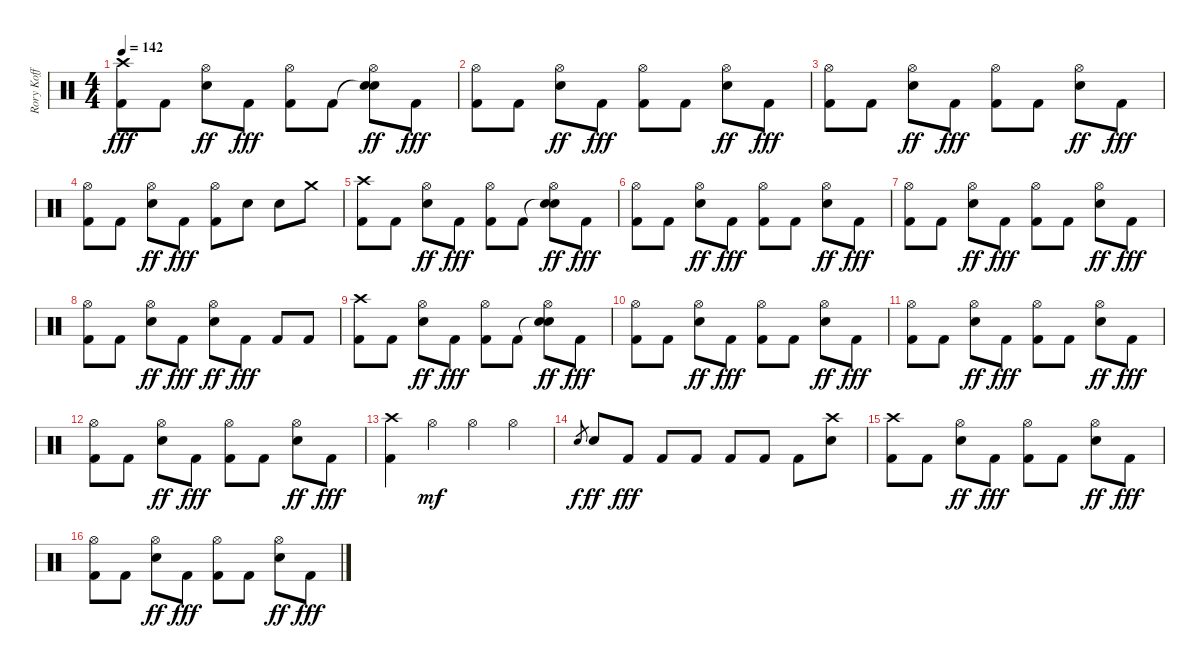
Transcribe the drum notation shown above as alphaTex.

\track ("Rory Koff" "Rory Koff") {instrument percussion}
\staff {score}
\articulation defaults
\ts (4 4)
\tempo 142
\clef neutral
\ks c
("Crash high (hit)" "Kick (hit) 2").8{dy fff} "Kick (hit) 2".8 ("Hi-Hat (open)" "Electric Snare (hit)").8{dy ff} "Kick (hit) 2".8{dy fff} ("Hi-Hat (open)" "Kick (hit) 2").8 "Kick (hit) 2".8 ("Snare (hit)"{t} "Hi-Hat (open)" "Electric Snare (hit)").8{dy ff} "Kick (hit) 2".8{dy fff} |
("Hi-Hat (open)" "Kick (hit) 2").8 "Kick (hit) 2".8 ("Hi-Hat (open)" "Electric Snare (hit)").8{dy ff} "Kick (hit) 2".8{dy fff} ("Hi-Hat (open)" "Kick (hit) 2").8 "Kick (hit) 2".8 ("Hi-Hat (open)" "Electric Snare (hit)").8{dy ff} "Kick (hit) 2".8{dy fff} |
("Hi-Hat (open)" "Kick (hit) 2").8 "Kick (hit) 2".8 ("Hi-Hat (open)" "Electric Snare (hit)").8{dy ff} "Kick (hit) 2".8{dy fff} ("Hi-Hat (open)" "Kick (hit) 2").8 "Kick (hit) 2".8 ("Hi-Hat (open)" "Electric Snare (hit)").8{dy ff} "Kick (hit) 2".8{dy fff} |
("Hi-Hat (open)" "Kick (hit) 2").8 "Kick (hit) 2".8 ("Hi-Hat (open)" "Electric Snare (hit)").8{dy ff} "Kick (hit) 2".8{dy fff} ("Hi-Hat (open)" "Kick (hit) 2").8 "Electric Snare (hit)".8 "Electric Snare (hit)".8 "Crash medium (hit)".8 |
("Crash high (hit)" "Kick (hit) 2").8 "Kick (hit) 2".8 ("Hi-Hat (open)" "Electric Snare (hit)").8{dy ff} "Kick (hit) 2".8{dy fff} ("Hi-Hat (open)" "Kick (hit) 2").8 "Kick (hit) 2".8 ("Snare (hit)"{t} "Hi-Hat (open)" "Electric Snare (hit)").8{dy ff} "Kick (hit) 2".8{dy fff} |
("Hi-Hat (open)" "Kick (hit) 2").8 "Kick (hit) 2".8 ("Hi-Hat (open)" "Electric Snare (hit)").8{dy ff} "Kick (hit) 2".8{dy fff} ("Hi-Hat (open)" "Kick (hit) 2").8 "Kick (hit) 2".8 ("Hi-Hat (open)" "Electric Snare (hit)").8{dy ff} "Kick (hit) 2".8{dy fff} |
("Hi-Hat (open)" "Kick (hit) 2").8 "Kick (hit) 2".8 ("Hi-Hat (open)" "Electric Snare (hit)").8{dy ff} "Kick (hit) 2".8{dy fff} ("Hi-Hat (open)" "Kick (hit) 2").8 "Kick (hit) 2".8 ("Hi-Hat (open)" "Electric Snare (hit)").8{dy ff} "Kick (hit) 2".8{dy fff} |
("Hi-Hat (open)" "Kick (hit) 2").8 "Kick (hit) 2".8 ("Hi-Hat (open)" "Electric Snare (hit)").8{dy ff} "Kick (hit) 2".8{dy fff} ("Hi-Hat (open)" "Electric Snare (hit)").8{dy ff} "Kick (hit) 2".8{dy fff} "Kick (hit) 2".8 "Kick (hit) 2".8 |
("Crash high (hit)" "Kick (hit) 2").8 "Kick (hit) 2".8 ("Hi-Hat (open)" "Electric Snare (hit)").8{dy ff} "Kick (hit) 2".8{dy fff} ("Hi-Hat (open)" "Kick (hit) 2").8 "Kick (hit) 2".8 ("Snare (hit)"{t} "Hi-Hat (open)" "Electric Snare (hit)").8{dy ff} "Kick (hit) 2".8{dy fff} |
("Hi-Hat (open)" "Kick (hit) 2").8 "Kick (hit) 2".8 ("Hi-Hat (open)" "Electric Snare (hit)").8{dy ff} "Kick (hit) 2".8{dy fff} ("Hi-Hat (open)" "Kick (hit) 2").8 "Kick (hit) 2".8 ("Hi-Hat (open)" "Electric Snare (hit)").8{dy ff} "Kick (hit) 2".8{dy fff} |
("Hi-Hat (open)" "Kick (hit) 2").8 "Kick (hit) 2".8 ("Hi-Hat (open)" "Electric Snare (hit)").8{dy ff} "Kick (hit) 2".8{dy fff} ("Hi-Hat (open)" "Kick (hit) 2").8 "Kick (hit) 2".8 ("Hi-Hat (open)" "Electric Snare (hit)").8{dy ff} "Kick (hit) 2".8{dy fff} |
("Hi-Hat (open)" "Kick (hit) 2").8 "Kick (hit) 2".8 ("Hi-Hat (open)" "Electric Snare (hit)").8{dy ff} "Kick (hit) 2".8{dy fff} ("Hi-Hat (open)" "Kick (hit) 2").8 "Kick (hit) 2".8 ("Hi-Hat (open)" "Electric Snare (hit)").8{dy ff} "Kick (hit) 2".8{dy fff} |
("Crash high (hit)" "Kick (hit) 2").4 "Hi-Hat (open)".4{dy mf} "Hi-Hat (open)".4 "Hi-Hat (open)".4 |
"Electric Snare (hit)".8{gr dy f} "Electric Snare (hit)".8{dy ff} "Kick (hit) 2".8{dy fff} "Kick (hit) 2".8 "Kick (hit) 2".8 "Kick (hit) 2".8 "Kick (hit) 2".8 "Kick (hit) 2".8 ("Crash high (hit)" "Electric Snare (hit)").8 |
("Crash high (hit)" "Kick (hit) 2").8 "Kick (hit) 2".8 ("Hi-Hat (open)" "Electric Snare (hit)").8{dy ff} "Kick (hit) 2".8{dy fff} ("Hi-Hat (open)" "Kick (hit) 2").8 "Kick (hit) 2".8 ("Hi-Hat (open)" "Electric Snare (hit)").8{dy ff} "Kick (hit) 2".8{dy fff} |
("Hi-Hat (open)" "Kick (hit) 2").8 "Kick (hit) 2".8 ("Hi-Hat (open)" "Electric Snare (hit)").8{dy ff} "Kick (hit) 2".8{dy fff} ("Hi-Hat (open)" "Kick (hit) 2").8 "Kick (hit) 2".8 ("Hi-Hat (open)" "Electric Snare (hit)").8{dy ff} "Kick (hit) 2".8{dy fff}
